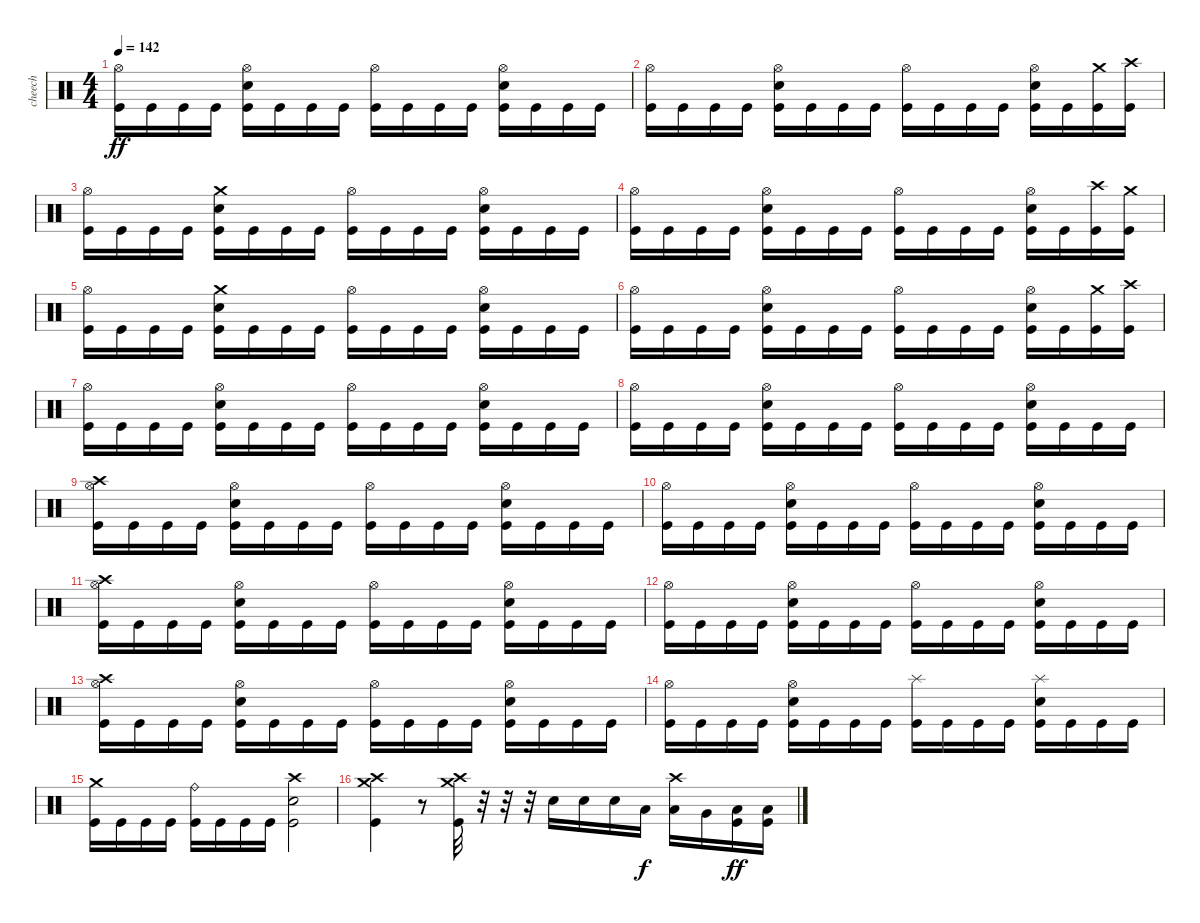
\track ("cheech" "cheech") {instrument percussion}
\staff {score}
\articulation defaults
\ts (4 4)
\tempo 142
\clef neutral
\ks c
("Hi-Hat (open)" "Kick (hit)").16{dy ff} "Kick (hit)".16 "Kick (hit)".16 "Kick (hit)".16 ("Hi-Hat (open)" "Electric Snare (hit)" "Kick (hit)").16 "Kick (hit)".16 "Kick (hit)".16 "Kick (hit)".16 ("Hi-Hat (open)" "Kick (hit)").16 "Kick (hit)".16 "Kick (hit)".16 "Kick (hit)".16 ("Hi-Hat (open)" "Electric Snare (hit)" "Kick (hit)").16 "Kick (hit)".16 "Kick (hit)".16 "Kick (hit)".16 |
("Hi-Hat (open)" "Kick (hit)").16 "Kick (hit)".16 "Kick (hit)".16 "Kick (hit)".16 ("Hi-Hat (open)" "Electric Snare (hit)" "Kick (hit)").16 "Kick (hit)".16 "Kick (hit)".16 "Kick (hit)".16 ("Hi-Hat (open)" "Kick (hit)").16 "Kick (hit)".16 "Kick (hit)".16 "Kick (hit)".16 ("Hi-Hat (open)" "Electric Snare (hit)" "Kick (hit)").16 "Kick (hit)".16 ("Crash medium (hit)" "Kick (hit)").16 ("Crash high (hit)" "Kick (hit)").16 |
("Hi-Hat (open)" "Kick (hit)").16 "Kick (hit)".16 "Kick (hit)".16 "Kick (hit)".16 ("Crash medium (hit)" "Electric Snare (hit)" "Kick (hit)").16 "Kick (hit)".16 "Kick (hit)".16 "Kick (hit)".16 ("Hi-Hat (open)" "Kick (hit)").16 "Kick (hit)".16 "Kick (hit)".16 "Kick (hit)".16 ("Hi-Hat (open)" "Electric Snare (hit)" "Kick (hit)").16 "Kick (hit)".16 "Kick (hit)".16 "Kick (hit)".16 |
("Hi-Hat (open)" "Kick (hit)").16 "Kick (hit)".16 "Kick (hit)".16 "Kick (hit)".16 ("Hi-Hat (open)" "Electric Snare (hit)" "Kick (hit)").16 "Kick (hit)".16 "Kick (hit)".16 "Kick (hit)".16 ("Hi-Hat (open)" "Kick (hit)").16 "Kick (hit)".16 "Kick (hit)".16 "Kick (hit)".16 ("Hi-Hat (open)" "Electric Snare (hit)" "Kick (hit)").16 "Kick (hit)".16 ("Crash high (hit)" "Kick (hit)").16 ("Crash medium (hit)" "Kick (hit)").16 |
("Hi-Hat (open)" "Kick (hit)").16 "Kick (hit)".16 "Kick (hit)".16 "Kick (hit)".16 ("Crash medium (hit)" "Electric Snare (hit)" "Kick (hit)").16 "Kick (hit)".16 "Kick (hit)".16 "Kick (hit)".16 ("Hi-Hat (open)" "Kick (hit)").16 "Kick (hit)".16 "Kick (hit)".16 "Kick (hit)".16 ("Hi-Hat (open)" "Electric Snare (hit)" "Kick (hit)").16 "Kick (hit)".16 "Kick (hit)".16 "Kick (hit)".16 |
("Hi-Hat (open)" "Kick (hit)").16 "Kick (hit)".16 "Kick (hit)".16 "Kick (hit)".16 ("Hi-Hat (open)" "Electric Snare (hit)" "Kick (hit)").16 "Kick (hit)".16 "Kick (hit)".16 "Kick (hit)".16 ("Hi-Hat (open)" "Kick (hit)").16 "Kick (hit)".16 "Kick (hit)".16 "Kick (hit)".16 ("Hi-Hat (open)" "Electric Snare (hit)" "Kick (hit)").16 "Kick (hit)".16 ("Crash medium (hit)" "Kick (hit)").16 ("Crash high (hit)" "Kick (hit)").16 |
("Hi-Hat (open)" "Kick (hit)").16 "Kick (hit)".16 "Kick (hit)".16 "Kick (hit)".16 ("Hi-Hat (open)" "Electric Snare (hit)" "Kick (hit)").16 "Kick (hit)".16 "Kick (hit)".16 "Kick (hit)".16 ("Hi-Hat (open)" "Kick (hit)").16 "Kick (hit)".16 "Kick (hit)".16 "Kick (hit)".16 ("Hi-Hat (open)" "Electric Snare (hit)" "Kick (hit)").16 "Kick (hit)".16 "Kick (hit)".16 "Kick (hit)".16 |
("Hi-Hat (open)" "Kick (hit)").16 "Kick (hit)".16 "Kick (hit)".16 "Kick (hit)".16 ("Hi-Hat (open)" "Electric Snare (hit)" "Kick (hit)").16 "Kick (hit)".16 "Kick (hit)".16 "Kick (hit)".16 ("Hi-Hat (open)" "Kick (hit)").16 "Kick (hit)".16 "Kick (hit)".16 "Kick (hit)".16 ("Hi-Hat (open)" "Electric Snare (hit)" "Kick (hit)").16 "Kick (hit)".16 "Kick (hit)".16 "Kick (hit)".16 |
("Hi-Hat (open)" "Crash high (hit)" "Kick (hit)").16 "Kick (hit)".16 "Kick (hit)".16 "Kick (hit)".16 ("Hi-Hat (open)" "Electric Snare (hit)" "Kick (hit)").16 "Kick (hit)".16 "Kick (hit)".16 "Kick (hit)".16 ("Hi-Hat (open)" "Kick (hit)").16 "Kick (hit)".16 "Kick (hit)".16 "Kick (hit)".16 ("Hi-Hat (open)" "Electric Snare (hit)" "Kick (hit)").16 "Kick (hit)".16 "Kick (hit)".16 "Kick (hit)".16 |
("Hi-Hat (open)" "Kick (hit)").16 "Kick (hit)".16 "Kick (hit)".16 "Kick (hit)".16 ("Hi-Hat (open)" "Electric Snare (hit)" "Kick (hit)").16 "Kick (hit)".16 "Kick (hit)".16 "Kick (hit)".16 ("Hi-Hat (open)" "Kick (hit)").16 "Kick (hit)".16 "Kick (hit)".16 "Kick (hit)".16 ("Hi-Hat (open)" "Electric Snare (hit)" "Kick (hit)").16 "Kick (hit)".16 "Kick (hit)".16 "Kick (hit)".16 |
("Hi-Hat (open)" "Crash high (hit)" "Kick (hit)").16 "Kick (hit)".16 "Kick (hit)".16 "Kick (hit)".16 ("Hi-Hat (open)" "Electric Snare (hit)" "Kick (hit)").16 "Kick (hit)".16 "Kick (hit)".16 "Kick (hit)".16 ("Hi-Hat (open)" "Kick (hit)").16 "Kick (hit)".16 "Kick (hit)".16 "Kick (hit)".16 ("Hi-Hat (open)" "Electric Snare (hit)" "Kick (hit)").16 "Kick (hit)".16 "Kick (hit)".16 "Kick (hit)".16 |
("Hi-Hat (open)" "Kick (hit)").16 "Kick (hit)".16 "Kick (hit)".16 "Kick (hit)".16 ("Hi-Hat (open)" "Electric Snare (hit)" "Kick (hit)").16 "Kick (hit)".16 "Kick (hit)".16 "Kick (hit)".16 ("Hi-Hat (open)" "Kick (hit)").16 "Kick (hit)".16 "Kick (hit)".16 "Kick (hit)".16 ("Hi-Hat (open)" "Electric Snare (hit)" "Kick (hit)").16 "Kick (hit)".16 "Kick (hit)".16 "Kick (hit)".16 |
("Hi-Hat (open)" "Crash high (hit)" "Kick (hit)").16 "Kick (hit)".16 "Kick (hit)".16 "Kick (hit)".16 ("Hi-Hat (open)" "Electric Snare (hit)" "Kick (hit)").16 "Kick (hit)".16 "Kick (hit)".16 "Kick (hit)".16 ("Hi-Hat (open)" "Kick (hit)").16 "Kick (hit)".16 "Kick (hit)".16 "Kick (hit)".16 ("Hi-Hat (open)" "Electric Snare (hit)" "Kick (hit)").16 "Kick (hit)".16 "Kick (hit)".16 "Kick (hit)".16 |
("Hi-Hat (open)" "Kick (hit)").16 "Kick (hit)".16 "Kick (hit)".16 "Kick (hit)".16 ("Hi-Hat (open)" "Electric Snare (hit)" "Kick (hit)").16 "Kick (hit)".16 "Kick (hit)".16 "Kick (hit)".16 ("Splash (hit)" "Kick (hit)").16 "Kick (hit)".16 "Kick (hit)".16 "Kick (hit)".16 ("Splash (hit)" "Electric Snare (hit)" "Kick (hit)").16 "Kick (hit)".16 "Kick (hit)".16 "Kick (hit)".16 |
("Crash medium (hit)" "Kick (hit)").16 "Kick (hit)".16 "Kick (hit)".16 "Kick (hit)".16 ("Ride (bell)" "Kick (hit)").16 "Kick (hit)".16 "Kick (hit)".16 "Kick (hit)".16 ("Crash high (hit)" "Electric Snare (hit)" "Kick (hit)").2 |
("Crash high (hit)" "Crash medium (hit)" "Kick (hit)").4 r.8 ("Crash medium (hit)" "Crash high (hit)" "Kick (hit)").32 r.32 r.32 r.32 "Electric Snare (hit)".16 "Electric Snare (hit)".16 "Electric Snare (hit)".16 "Low Tom (hit)".16{dy f} ("Crash high (hit)" "Low Tom (hit)").16 "Very Low Tom (hit)".16 ("Low Floor Tom (hit)" "Kick (hit)").16{dy ff} ("Low Floor Tom (hit)" "Kick (hit)").16
